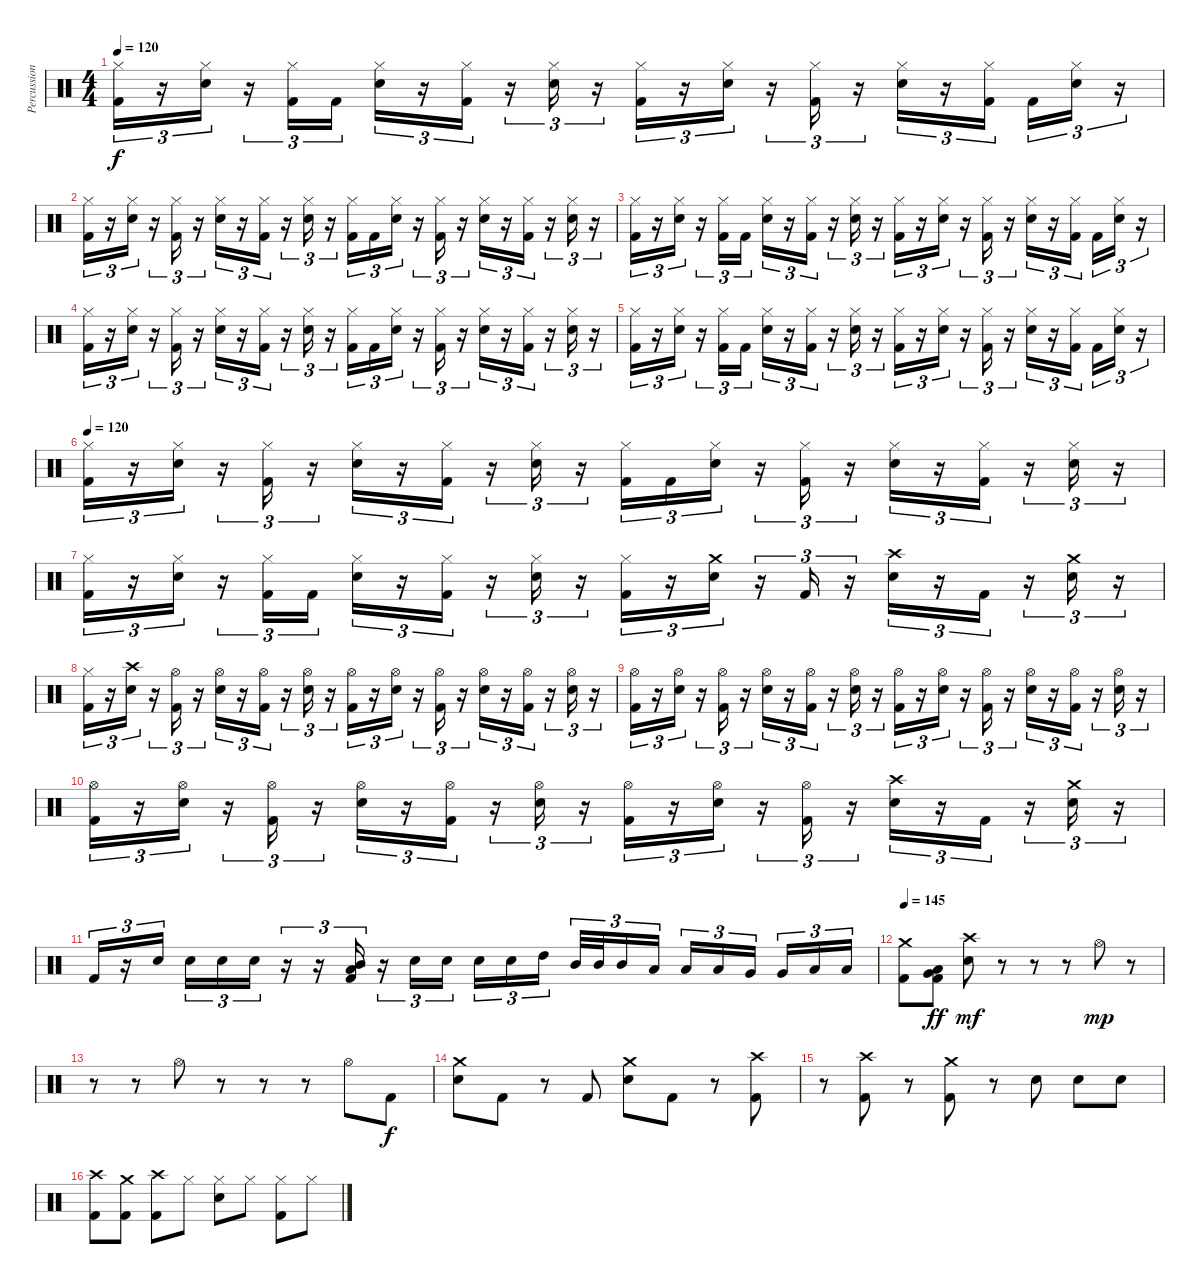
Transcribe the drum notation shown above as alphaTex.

\track ("Percussion" "Percussion") {instrument percussion}
\staff {score}
\articulation defaults
\ts (4 4)
\tempo 120
\clef neutral
\ks c
("Hi-Hat (closed)" "Kick (hit) 2").16{tu (3 2) dy f} r.16{tu (3 2)} ("Hi-Hat (closed)" "Snare (hit) 2").16{tu (3 2)} r.16{tu (3 2)} ("Hi-Hat (closed)" "Kick (hit) 2").16{tu (3 2)} "Kick (hit) 2".16{tu (3 2)} ("Hi-Hat (closed)" "Snare (hit) 2").16{tu (3 2)} r.16{tu (3 2)} ("Hi-Hat (closed)" "Kick (hit) 2").16{tu (3 2)} r.16{tu (3 2)} ("Hi-Hat (closed)" "Snare (hit) 2").16{tu (3 2)} r.16{tu (3 2)} ("Hi-Hat (closed)" "Kick (hit) 2").16{tu (3 2)} r.16{tu (3 2)} ("Hi-Hat (closed)" "Snare (hit) 2").16{tu (3 2)} r.16{tu (3 2)} ("Hi-Hat (closed)" "Kick (hit) 2").16{tu (3 2)} r.16{tu (3 2)} ("Hi-Hat (closed)" "Snare (hit) 2").16{tu (3 2)} r.16{tu (3 2)} ("Hi-Hat (closed)" "Kick (hit) 2").16{tu (3 2) beam splitsecondary} "Kick (hit) 2".16{tu (3 2)} ("Hi-Hat (closed)" "Snare (hit) 2").16{tu (3 2)} r.16{tu (3 2)} |
("Hi-Hat (closed)" "Kick (hit) 2").16{tu (3 2)} r.16{tu (3 2)} ("Hi-Hat (closed)" "Snare (hit) 2").16{tu (3 2)} r.16{tu (3 2)} ("Hi-Hat (closed)" "Kick (hit) 2").16{tu (3 2)} r.16{tu (3 2)} ("Hi-Hat (closed)" "Snare (hit) 2").16{tu (3 2)} r.16{tu (3 2)} ("Hi-Hat (closed)" "Kick (hit) 2").16{tu (3 2)} r.16{tu (3 2)} ("Hi-Hat (closed)" "Snare (hit) 2").16{tu (3 2)} r.16{tu (3 2)} ("Hi-Hat (closed)" "Kick (hit) 2").16{tu (3 2)} "Kick (hit) 2".16{tu (3 2)} ("Hi-Hat (closed)" "Snare (hit) 2").16{tu (3 2)} r.16{tu (3 2)} ("Hi-Hat (closed)" "Kick (hit) 2").16{tu (3 2)} r.16{tu (3 2)} ("Hi-Hat (closed)" "Snare (hit) 2").16{tu (3 2)} r.16{tu (3 2)} ("Hi-Hat (closed)" "Kick (hit) 2").16{tu (3 2)} r.16{tu (3 2)} ("Hi-Hat (closed)" "Snare (hit) 2").16{tu (3 2)} r.16{tu (3 2)} |
("Hi-Hat (closed)" "Kick (hit) 2").16{tu (3 2)} r.16{tu (3 2)} ("Hi-Hat (closed)" "Snare (hit) 2").16{tu (3 2)} r.16{tu (3 2)} ("Hi-Hat (closed)" "Kick (hit) 2").16{tu (3 2)} "Kick (hit) 2".16{tu (3 2)} ("Hi-Hat (closed)" "Snare (hit) 2").16{tu (3 2)} r.16{tu (3 2)} ("Hi-Hat (closed)" "Kick (hit) 2").16{tu (3 2)} r.16{tu (3 2)} ("Hi-Hat (closed)" "Snare (hit) 2").16{tu (3 2)} r.16{tu (3 2)} ("Hi-Hat (closed)" "Kick (hit) 2").16{tu (3 2)} r.16{tu (3 2)} ("Hi-Hat (closed)" "Snare (hit) 2").16{tu (3 2)} r.16{tu (3 2)} ("Hi-Hat (closed)" "Kick (hit) 2").16{tu (3 2)} r.16{tu (3 2)} ("Hi-Hat (closed)" "Snare (hit) 2").16{tu (3 2)} r.16{tu (3 2)} ("Hi-Hat (closed)" "Kick (hit) 2").16{tu (3 2) beam splitsecondary} "Kick (hit) 2".16{tu (3 2)} ("Hi-Hat (closed)" "Snare (hit) 2").16{tu (3 2)} r.16{tu (3 2)} |
("Hi-Hat (closed)" "Kick (hit) 2").16{tu (3 2)} r.16{tu (3 2)} ("Hi-Hat (closed)" "Snare (hit) 2").16{tu (3 2)} r.16{tu (3 2)} ("Hi-Hat (closed)" "Kick (hit) 2").16{tu (3 2)} r.16{tu (3 2)} ("Hi-Hat (closed)" "Snare (hit) 2").16{tu (3 2)} r.16{tu (3 2)} ("Hi-Hat (closed)" "Kick (hit) 2").16{tu (3 2)} r.16{tu (3 2)} ("Hi-Hat (closed)" "Snare (hit) 2").16{tu (3 2)} r.16{tu (3 2)} ("Hi-Hat (closed)" "Kick (hit) 2").16{tu (3 2)} "Kick (hit) 2".16{tu (3 2)} ("Hi-Hat (closed)" "Snare (hit) 2").16{tu (3 2)} r.16{tu (3 2)} ("Hi-Hat (closed)" "Kick (hit) 2").16{tu (3 2)} r.16{tu (3 2)} ("Hi-Hat (closed)" "Snare (hit) 2").16{tu (3 2)} r.16{tu (3 2)} ("Hi-Hat (closed)" "Kick (hit) 2").16{tu (3 2)} r.16{tu (3 2)} ("Hi-Hat (closed)" "Snare (hit) 2").16{tu (3 2)} r.16{tu (3 2)} |
("Hi-Hat (closed)" "Kick (hit) 2").16{tu (3 2)} r.16{tu (3 2)} ("Hi-Hat (closed)" "Snare (hit) 2").16{tu (3 2)} r.16{tu (3 2)} ("Hi-Hat (closed)" "Kick (hit) 2").16{tu (3 2)} "Kick (hit) 2".16{tu (3 2)} ("Hi-Hat (closed)" "Snare (hit) 2").16{tu (3 2)} r.16{tu (3 2)} ("Hi-Hat (closed)" "Kick (hit) 2").16{tu (3 2)} r.16{tu (3 2)} ("Hi-Hat (closed)" "Snare (hit) 2").16{tu (3 2)} r.16{tu (3 2)} ("Hi-Hat (closed)" "Kick (hit) 2").16{tu (3 2)} r.16{tu (3 2)} ("Hi-Hat (closed)" "Snare (hit) 2").16{tu (3 2)} r.16{tu (3 2)} ("Hi-Hat (closed)" "Kick (hit) 2").16{tu (3 2)} r.16{tu (3 2)} ("Hi-Hat (closed)" "Snare (hit) 2").16{tu (3 2)} r.16{tu (3 2)} ("Hi-Hat (closed)" "Kick (hit) 2").16{tu (3 2) beam splitsecondary} "Kick (hit) 2".16{tu (3 2)} ("Hi-Hat (closed)" "Snare (hit) 2").16{tu (3 2)} r.16{tu (3 2)} |
\tempo 120
("Hi-Hat (closed)" "Kick (hit) 2").16{tu (3 2)} r.16{tu (3 2)} ("Hi-Hat (closed)" "Snare (hit) 2").16{tu (3 2)} r.16{tu (3 2)} ("Hi-Hat (closed)" "Kick (hit) 2").16{tu (3 2)} r.16{tu (3 2)} ("Hi-Hat (closed)" "Snare (hit) 2").16{tu (3 2)} r.16{tu (3 2)} ("Hi-Hat (closed)" "Kick (hit) 2").16{tu (3 2)} r.16{tu (3 2)} ("Hi-Hat (closed)" "Snare (hit) 2").16{tu (3 2)} r.16{tu (3 2)} ("Hi-Hat (closed)" "Kick (hit) 2").16{tu (3 2)} "Kick (hit) 2".16{tu (3 2)} ("Hi-Hat (closed)" "Snare (hit) 2").16{tu (3 2)} r.16{tu (3 2)} ("Hi-Hat (closed)" "Kick (hit) 2").16{tu (3 2)} r.16{tu (3 2)} ("Hi-Hat (closed)" "Snare (hit) 2").16{tu (3 2)} r.16{tu (3 2)} ("Hi-Hat (closed)" "Kick (hit) 2").16{tu (3 2)} r.16{tu (3 2)} ("Hi-Hat (closed)" "Snare (hit) 2").16{tu (3 2)} r.16{tu (3 2)} |
("Hi-Hat (closed)" "Kick (hit) 2").16{tu (3 2)} r.16{tu (3 2)} ("Hi-Hat (closed)" "Snare (hit) 2").16{tu (3 2)} r.16{tu (3 2)} ("Hi-Hat (closed)" "Kick (hit) 2").16{tu (3 2)} "Kick (hit) 2".16{tu (3 2)} ("Hi-Hat (closed)" "Snare (hit) 2").16{tu (3 2)} r.16{tu (3 2)} ("Hi-Hat (closed)" "Kick (hit) 2").16{tu (3 2)} r.16{tu (3 2)} ("Hi-Hat (closed)" "Snare (hit) 2").16{tu (3 2)} r.16{tu (3 2)} ("Hi-Hat (closed)" "Kick (hit) 2").16{tu (3 2)} r.16{tu (3 2)} ("Crash medium (hit)" "Snare (hit) 2").16{tu (3 2)} r.16{tu (3 2)} "Kick (hit) 2".16{tu (3 2)} r.16{tu (3 2)} ("Crash high (hit)" "Snare (hit) 2").16{tu (3 2)} r.16{tu (3 2)} "Kick (hit) 2".16{tu (3 2)} r.16{tu (3 2)} ("Crash medium (hit)" "Snare (hit) 2").16{tu (3 2)} r.16{tu (3 2)} |
("Hi-Hat (closed)" "Kick (hit) 2").16{tu (3 2)} r.16{tu (3 2)} ("Crash high (hit)" "Snare (hit) 2").16{tu (3 2)} r.16{tu (3 2)} ("Hi-Hat (open)" "Kick (hit) 2").16{tu (3 2)} r.16{tu (3 2)} ("Hi-Hat (open)" "Snare (hit) 2").16{tu (3 2)} r.16{tu (3 2)} ("Hi-Hat (open)" "Kick (hit) 2").16{tu (3 2)} r.16{tu (3 2)} ("Hi-Hat (open)" "Snare (hit) 2").16{tu (3 2)} r.16{tu (3 2)} ("Hi-Hat (open)" "Kick (hit) 2").16{tu (3 2)} r.16{tu (3 2)} ("Hi-Hat (open)" "Snare (hit) 2").16{tu (3 2)} r.16{tu (3 2)} ("Hi-Hat (open)" "Kick (hit) 2").16{tu (3 2)} r.16{tu (3 2)} ("Hi-Hat (open)" "Snare (hit) 2").16{tu (3 2)} r.16{tu (3 2)} ("Hi-Hat (open)" "Kick (hit) 2").16{tu (3 2)} r.16{tu (3 2)} ("Hi-Hat (open)" "Snare (hit) 2").16{tu (3 2)} r.16{tu (3 2)} |
("Hi-Hat (open)" "Kick (hit) 2").16{tu (3 2)} r.16{tu (3 2)} ("Hi-Hat (open)" "Snare (hit) 2").16{tu (3 2)} r.16{tu (3 2)} ("Hi-Hat (open)" "Kick (hit) 2").16{tu (3 2)} r.16{tu (3 2)} ("Hi-Hat (open)" "Snare (hit) 2").16{tu (3 2)} r.16{tu (3 2)} ("Hi-Hat (open)" "Kick (hit) 2").16{tu (3 2)} r.16{tu (3 2)} ("Hi-Hat (open)" "Snare (hit) 2").16{tu (3 2)} r.16{tu (3 2)} ("Hi-Hat (open)" "Kick (hit) 2").16{tu (3 2)} r.16{tu (3 2)} ("Hi-Hat (open)" "Snare (hit) 2").16{tu (3 2)} r.16{tu (3 2)} ("Hi-Hat (open)" "Kick (hit) 2").16{tu (3 2)} r.16{tu (3 2)} ("Hi-Hat (open)" "Snare (hit) 2").16{tu (3 2)} r.16{tu (3 2)} ("Hi-Hat (open)" "Kick (hit) 2").16{tu (3 2)} r.16{tu (3 2)} ("Hi-Hat (open)" "Snare (hit) 2").16{tu (3 2)} r.16{tu (3 2)} |
("Hi-Hat (open)" "Kick (hit) 2").16{tu (3 2)} r.16{tu (3 2)} ("Hi-Hat (open)" "Snare (hit) 2").16{tu (3 2)} r.16{tu (3 2)} ("Hi-Hat (open)" "Kick (hit) 2").16{tu (3 2)} r.16{tu (3 2)} ("Hi-Hat (open)" "Snare (hit) 2").16{tu (3 2)} r.16{tu (3 2)} ("Hi-Hat (open)" "Kick (hit) 2").16{tu (3 2)} r.16{tu (3 2)} ("Hi-Hat (open)" "Snare (hit) 2").16{tu (3 2)} r.16{tu (3 2)} ("Hi-Hat (open)" "Kick (hit) 2").16{tu (3 2)} r.16{tu (3 2)} ("Hi-Hat (open)" "Snare (hit) 2").16{tu (3 2)} r.16{tu (3 2)} ("Hi-Hat (open)" "Kick (hit) 2").16{tu (3 2)} r.16{tu (3 2)} ("Crash high (hit)" "Snare (hit) 2").16{tu (3 2)} r.16{tu (3 2)} "Kick (hit) 2".16{tu (3 2)} r.16{tu (3 2)} ("Crash medium (hit)" "Snare (hit) 2").16{tu (3 2)} r.16{tu (3 2)} |
"Kick (hit) 2".16{tu (3 2)} r.16{tu (3 2)} "Snare (hit) 2".16{tu (3 2) beam splitsecondary} "Snare (hit) 2".16{tu (3 2)} "Snare (hit) 2".16{tu (3 2)} "Snare (hit) 2".16{tu (3 2)} r.16{tu (3 2)} r.16{tu (3 2)} ("Mid Tom (hit)" "Low Floor Tom (hit)" "Kick (hit) 2").16{tu (3 2)} r.16{tu (3 2)} "Snare (hit) 2".16{tu (3 2)} "Snare (hit) 2".16{tu (3 2)} "Snare (hit) 2".16{tu (3 2)} "Snare (hit) 2".16{tu (3 2)} "High Tom (hit)".16{tu (3 2) beam splitsecondary} "Mid Tom (hit)".32{tu (3 2)} "Mid Tom (hit)".32{tu (3 2)} "Mid Tom (hit)".16{tu (3 2)} "Low Tom (hit)".16{tu (3 2)} "Low Tom (hit)".16{tu (3 2)} "Low Tom (hit)".16{tu (3 2)} "Very Low Tom (hit)".16{tu (3 2) beam splitsecondary} "Very Low Tom (hit)".16{tu (3 2)} "Low Floor Tom (hit)".16{tu (3 2)} "Low Floor Tom (hit)".16{tu (3 2)} |
\tempo 145
("Crash medium (hit)" "Kick (hit) 2").8 ("Very Low Tom (hit)" "Low Floor Tom (hit)" "Kick (hit) 2").8{dy ff} ("Crash high (hit)" "Snare (hit) 2").8{dy mf} r.8 r.8 r.8 "Hi-Hat (open)".8{dy mp} r.8 |
r.8 r.8 "Hi-Hat (open)".8 r.8 r.8 r.8 "Hi-Hat (open)".8 "Kick (hit) 2".8{dy f} |
("Crash medium (hit)" "Snare (hit) 2").8 "Kick (hit) 2".8 r.8 "Kick (hit) 2".8 ("Crash medium (hit)" "Snare (hit) 2").8 "Kick (hit) 2".8 r.8 ("Crash high (hit)" "Kick (hit) 2").8 |
r.8 ("Crash high (hit)" "Kick (hit) 2").8 r.8 ("Crash medium (hit)" "Kick (hit) 2").8 r.8 "Snare (hit) 2".8 "Snare (hit) 2".8 "Snare (hit) 2".8 |
("Crash high (hit)" "Kick (hit) 2").8 ("Crash medium (hit)" "Kick (hit) 2").8 ("Crash high (hit)" "Kick (hit) 2").8 "Hi-Hat (closed)".8 ("Hi-Hat (closed)" "Snare (hit) 2").8 "Hi-Hat (closed)".8 ("Hi-Hat (closed)" "Kick (hit) 2").8 "Hi-Hat (closed)".8
